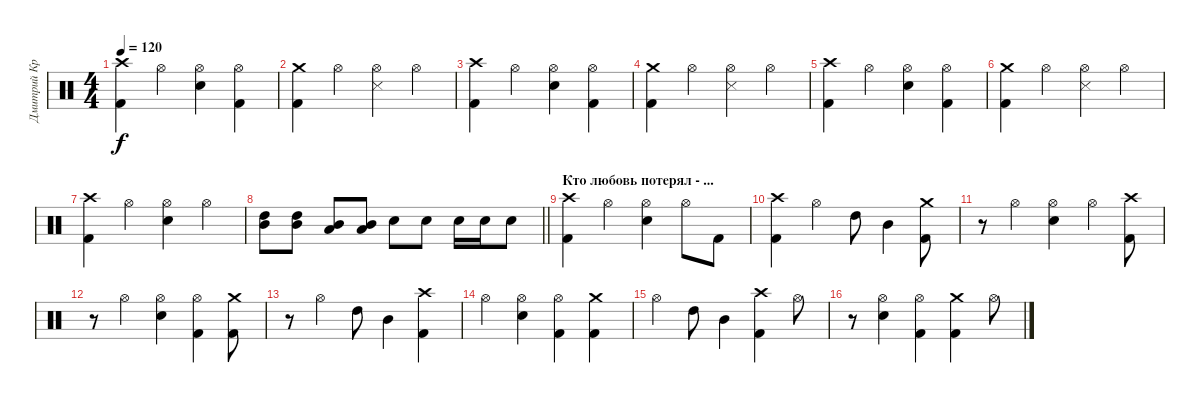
\track ("Дмитрий Кривенков       (Ударные)" "Дмитрий Кр") {instrument percussion}
\staff {score}
\articulation defaults
\ts (4 4)
\tempo 120
\clef neutral
\ks c
("Crash high (hit)" "Kick (hit) 2").4{dy f} "Hi-Hat (open)".4 ("Hi-Hat (open)" "Electric Snare (hit)").4 ("Hi-Hat (open)" "Kick (hit) 2").4 |
("Crash medium (hit)" "Kick (hit) 2").4 "Hi-Hat (open)".4 ("Snare (side stick) 3" "Hi-Hat (open)").4 "Hi-Hat (open)".4 |
("Crash high (hit)" "Kick (hit) 2").4 "Hi-Hat (open)".4 ("Hi-Hat (open)" "Electric Snare (hit)").4 ("Hi-Hat (open)" "Kick (hit) 2").4 |
("Crash medium (hit)" "Kick (hit) 2").4 "Hi-Hat (open)".4 ("Snare (side stick) 3" "Hi-Hat (open)").4 "Hi-Hat (open)".4 |
("Crash high (hit)" "Kick (hit) 2").4 "Hi-Hat (open)".4 ("Hi-Hat (open)" "Electric Snare (hit)").4 ("Hi-Hat (open)" "Kick (hit) 2").4 |
("Crash medium (hit)" "Kick (hit) 2").4 "Hi-Hat (open)".4 ("Snare (side stick) 3" "Hi-Hat (open)").4 "Hi-Hat (open)".4 |
("Crash high (hit)" "Kick (hit) 2").4 "Hi-Hat (open)".4 ("Hi-Hat (open)" "Electric Snare (hit)").4 "Hi-Hat (open)".4 |
\barLineRight lightlight
("High Tom (hit)" "Mid Tom (hit)").8 ("High Tom (hit)" "Mid Tom (hit)").8 ("Mid Tom (hit)" "Low Tom (hit)").8 ("Mid Tom (hit)" "Low Tom (hit)").8 "Electric Snare (hit)".8 "Electric Snare (hit)".8 "Electric Snare (hit)".16 "Electric Snare (hit)".16 "Electric Snare (hit)".8 |
\section ("" "Кто любовь потерял - ...")
("Crash high (hit)" "Kick (hit) 2").4 "Hi-Hat (open)".4 ("Hi-Hat (open)" "Electric Snare (hit)").4 "Hi-Hat (open)".8 "Kick (hit) 2".8 |
("Crash high (hit)" "Kick (hit) 2").4 "Hi-Hat (open)".4 "High Tom (hit)".8 "Mid Tom (hit)".4 ("Crash medium (hit)" "Kick (hit) 2").8 |
r.8 "Hi-Hat (open)".4 ("Hi-Hat (open)" "Electric Snare (hit)").4 "Hi-Hat (open)".4 ("Crash high (hit)" "Kick (hit) 2").8 |
r.8 "Hi-Hat (open)".4 ("Hi-Hat (open)" "Electric Snare (hit)").4 ("Hi-Hat (open)" "Kick (hit) 2").4 ("Crash medium (hit)" "Kick (hit) 2").8 |
r.8 "Hi-Hat (open)".4 "High Tom (hit)".8 "Mid Tom (hit)".4 ("Crash high (hit)" "Kick (hit) 2").4 |
"Hi-Hat (open)".4 ("Hi-Hat (open)" "Electric Snare (hit)").4 ("Hi-Hat (open)" "Kick (hit) 2").4 ("Crash medium (hit)" "Kick (hit) 2").4 |
"Hi-Hat (open)".4 "High Tom (hit)".8 "Mid Tom (hit)".4 ("Crash high (hit)" "Kick (hit) 2").4 "Hi-Hat (open)".8 |
r.8 ("Hi-Hat (open)" "Electric Snare (hit)").4 ("Hi-Hat (open)" "Kick (hit) 2").4 ("Crash medium (hit)" "Kick (hit) 2").4 "Hi-Hat (open)".8
